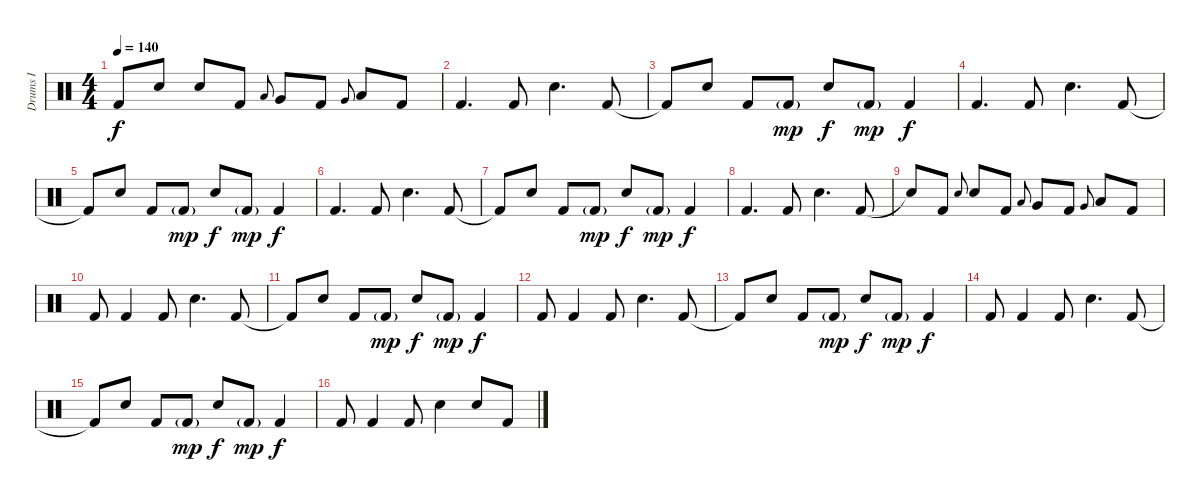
\track ("Drums I" "Drums I") {instrument percussion}
\staff {score}
\articulation defaults
\ts (4 4)
\tempo 140
\clef neutral
\ks c "Kick (hit) 2".8{dy f} "Electric Snare (hit)".8 "Electric Snare (hit)".8 "Kick (hit) 2".8 "Low Tom (hit)".8{gr onbeat} "Very Low Tom (hit)".8 "Kick (hit) 2".8 "Very Low Tom (hit)".8{gr onbeat} "Low Floor Tom (hit)".8 "Kick (hit) 2".8
|
"Kick (hit) 2".4{d} "Kick (hit) 2".8 "Electric Snare (hit)".4{d} "Kick (hit) 2".8 |
"Kick (hit) 2"{t}.8 "Electric Snare (hit)".8 "Kick (hit) 2".8 "Kick (hit) 2"{g}.8{dy mp} "Electric Snare (hit)".8{dy f} "Kick (hit) 2"{g}.8{dy mp} "Kick (hit) 2".4{dy f} |
"Kick (hit) 2".4{d} "Kick (hit) 2".8 "Electric Snare (hit)".4{d} "Kick (hit) 2".8 |
"Kick (hit) 2"{t}.8 "Electric Snare (hit)".8 "Kick (hit) 2".8 "Kick (hit) 2"{g}.8{dy mp} "Electric Snare (hit)".8{dy f} "Kick (hit) 2"{g}.8{dy mp} "Kick (hit) 2".4{dy f} |
"Kick (hit) 2".4{d} "Kick (hit) 2".8 "Electric Snare (hit)".4{d} "Kick (hit) 2".8 |
"Kick (hit) 2"{t}.8 "Electric Snare (hit)".8 "Kick (hit) 2".8 "Kick (hit) 2"{g}.8{dy mp} "Electric Snare (hit)".8{dy f} "Kick (hit) 2"{g}.8{dy mp} "Kick (hit) 2".4{dy f} |
"Kick (hit) 2".4{d} "Kick (hit) 2".8 "Electric Snare (hit)".4{d} "Kick (hit) 2".8 |
"Snare (hit)"{t}.8 "Kick (hit) 2".8 "Electric Snare (hit)".8{gr onbeat} "Electric Snare (hit)".8 "Kick (hit) 2".8 "Low Tom (hit)".8{gr onbeat} "Very Low Tom (hit)".8 "Kick (hit) 2".8 "Very Low Tom (hit)".8{gr onbeat} "Low Floor Tom (hit)".8 "Kick (hit) 2".8 |
"Kick (hit) 2".8 "Kick (hit) 2".4 "Kick (hit) 2".8 "Electric Snare (hit)".4{d} "Kick (hit) 2".8 |
"Kick (hit) 2"{t}.8 "Electric Snare (hit)".8 "Kick (hit) 2".8 "Kick (hit) 2"{g}.8{dy mp} "Electric Snare (hit)".8{dy f} "Kick (hit) 2"{g}.8{dy mp} "Kick (hit) 2".4{dy f} |
"Kick (hit) 2".8 "Kick (hit) 2".4 "Kick (hit) 2".8 "Electric Snare (hit)".4{d} "Kick (hit) 2".8 |
"Kick (hit) 2"{t}.8 "Electric Snare (hit)".8 "Kick (hit) 2".8 "Kick (hit) 2"{g}.8{dy mp} "Electric Snare (hit)".8{dy f} "Kick (hit) 2"{g}.8{dy mp} "Kick (hit) 2".4{dy f} |
"Kick (hit) 2".8 "Kick (hit) 2".4 "Kick (hit) 2".8 "Electric Snare (hit)".4{d} "Kick (hit) 2".8 |
"Kick (hit) 2"{t}.8 "Electric Snare (hit)".8 "Kick (hit) 2".8 "Kick (hit) 2"{g}.8{dy mp} "Electric Snare (hit)".8{dy f} "Kick (hit) 2"{g}.8{dy mp} "Kick (hit) 2".4{dy f} |
"Kick (hit) 2".8 "Kick (hit) 2".4 "Kick (hit) 2".8 "Electric Snare (hit)".4 "Electric Snare (hit)".8 "Kick (hit) 2".8
